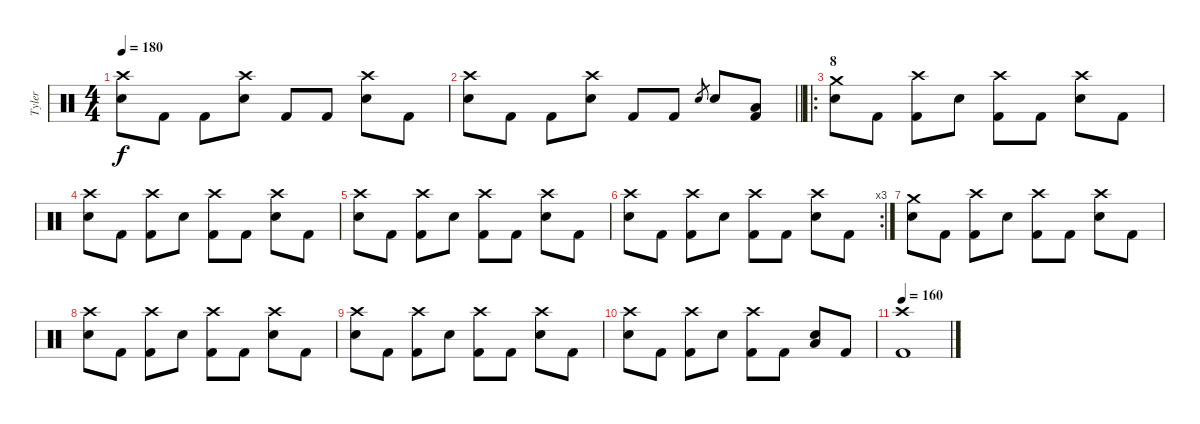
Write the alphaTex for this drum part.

\track ("Tyler" "Tyler") {instrument percussion}
\staff {score}
\articulation defaults
\ts (4 4)
\tempo 180
\clef neutral
\ks c
("Crash high (hit)" "Snare (hit) 2").8{dy f} "Kick (hit) 2".8 "Kick (hit) 2".8 ("Crash high (hit)" "Snare (hit) 2").8 "Kick (hit) 2".8 "Kick (hit) 2".8 ("Crash high (hit)" "Snare (hit) 2").8 "Kick (hit) 2".8 |
\barLineRight lightlight
("Crash high (hit)" "Snare (hit) 2").8 "Kick (hit) 2".8 "Kick (hit) 2".8 ("Crash high (hit)" "Snare (hit) 2").8 "Kick (hit) 2".8 "Kick (hit) 2".8 "Snare (hit) 2".8{gr} "Snare (hit) 2".8 ("Low Tom (hit)" "Kick (hit) 2").8 |
\ro
\section ("" "8")
("Crash medium (hit)" "Snare (hit) 2").8 "Kick (hit) 2".8 ("Crash high (hit)" "Kick (hit) 2").8 "Snare (hit) 2".8 ("Crash high (hit)" "Kick (hit) 2").8 "Kick (hit) 2".8 ("Crash high (hit)" "Snare (hit) 2").8 "Kick (hit) 2".8 |
("Crash high (hit)" "Snare (hit) 2").8 "Kick (hit) 2".8 ("Crash high (hit)" "Kick (hit) 2").8 "Snare (hit) 2".8 ("Crash high (hit)" "Kick (hit) 2").8 "Kick (hit) 2".8 ("Crash high (hit)" "Snare (hit) 2").8 "Kick (hit) 2".8 |
("Crash high (hit)" "Snare (hit) 2").8 "Kick (hit) 2".8 ("Crash high (hit)" "Kick (hit) 2").8 "Snare (hit) 2".8 ("Crash high (hit)" "Kick (hit) 2").8 "Kick (hit) 2".8 ("Crash high (hit)" "Snare (hit) 2").8 "Kick (hit) 2".8 |
\rc 3
("Crash high (hit)" "Snare (hit) 2").8 "Kick (hit) 2".8 ("Crash high (hit)" "Kick (hit) 2").8 "Snare (hit) 2".8 ("Crash high (hit)" "Kick (hit) 2").8 "Kick (hit) 2".8 ("Crash high (hit)" "Snare (hit) 2").8 "Kick (hit) 2".8 |
("Crash medium (hit)" "Snare (hit) 2").8 "Kick (hit) 2".8 ("Crash high (hit)" "Kick (hit) 2").8 "Snare (hit) 2".8 ("Crash high (hit)" "Kick (hit) 2").8 "Kick (hit) 2".8 ("Crash high (hit)" "Snare (hit) 2").8 "Kick (hit) 2".8 |
("Crash high (hit)" "Snare (hit) 2").8 "Kick (hit) 2".8 ("Crash high (hit)" "Kick (hit) 2").8 "Snare (hit) 2".8 ("Crash high (hit)" "Kick (hit) 2").8 "Kick (hit) 2".8 ("Crash high (hit)" "Snare (hit) 2").8 "Kick (hit) 2".8 |
("Crash high (hit)" "Snare (hit) 2").8 "Kick (hit) 2".8 ("Crash high (hit)" "Kick (hit) 2").8 "Snare (hit) 2".8 ("Crash high (hit)" "Kick (hit) 2").8 "Kick (hit) 2".8 ("Crash high (hit)" "Snare (hit) 2").8 "Kick (hit) 2".8 |
("Crash high (hit)" "Snare (hit) 2").8 "Kick (hit) 2".8 ("Crash high (hit)" "Kick (hit) 2").8 "Snare (hit) 2".8 ("Crash high (hit)" "Kick (hit) 2").8 "Kick (hit) 2".8 ("Low Floor Tom (hit)" "Snare (hit) 2").8 "Kick (hit) 2".8 |
\tempo 160
("Crash high (hit)" "Kick (hit) 2").1
